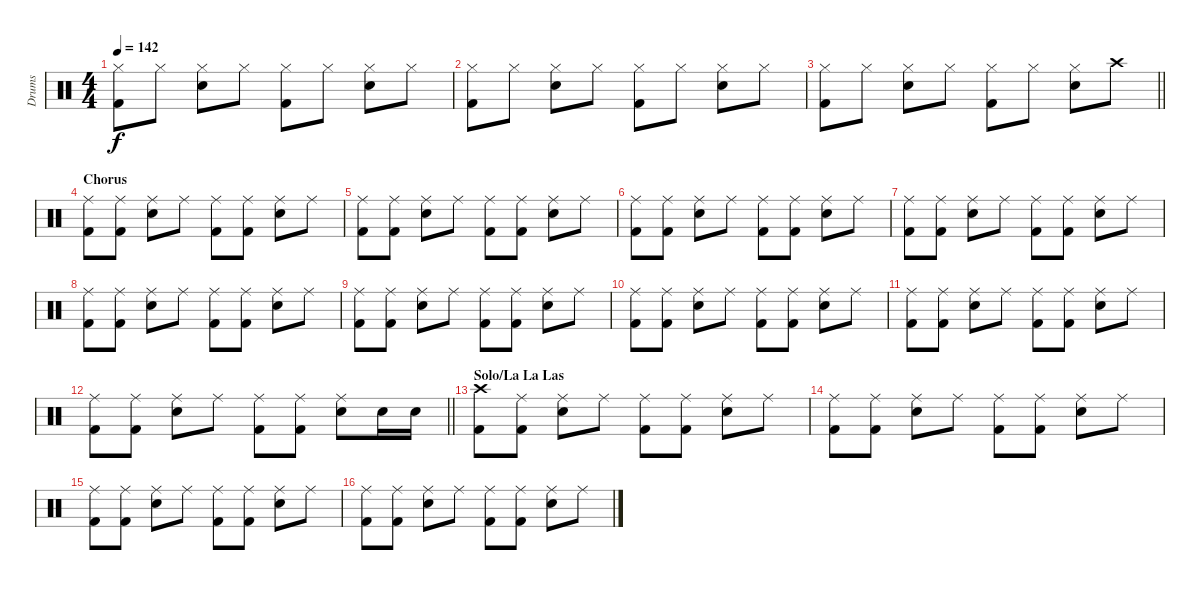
\track ("Drums" "Drums") {instrument percussion}
\staff {score}
\articulation defaults
\ts (4 4)
\tempo 142
\clef neutral
\ks c
("Hi-Hat (closed)" "Kick (hit) 2").8{dy f} "Hi-Hat (closed)".8 ("Hi-Hat (closed)" "Electric Snare (hit)").8 "Hi-Hat (closed)".8 ("Hi-Hat (closed)" "Kick (hit) 2").8 "Hi-Hat (closed)".8 ("Hi-Hat (closed)" "Electric Snare (hit)").8 "Hi-Hat (closed)".8 |
("Hi-Hat (closed)" "Kick (hit) 2").8 "Hi-Hat (closed)".8 ("Hi-Hat (closed)" "Electric Snare (hit)").8 "Hi-Hat (closed)".8 ("Hi-Hat (closed)" "Kick (hit) 2").8 "Hi-Hat (closed)".8 ("Hi-Hat (closed)" "Electric Snare (hit)").8 "Hi-Hat (closed)".8 |
\barLineRight lightlight
("Hi-Hat (closed)" "Kick (hit) 2").8 "Hi-Hat (closed)".8 ("Hi-Hat (closed)" "Electric Snare (hit)").8 "Hi-Hat (closed)".8 ("Hi-Hat (closed)" "Kick (hit) 2").8 "Hi-Hat (closed)".8 ("Hi-Hat (closed)" "Electric Snare (hit)").8 "Crash high (hit)".8 |
\section ("" "Chorus")
("Ride (middle)" "Kick (hit) 2").8 ("Ride (middle)" "Kick (hit) 2").8 ("Ride (middle)" "Electric Snare (hit)").8 "Ride (middle)".8 ("Ride (middle)" "Kick (hit) 2").8 ("Ride (middle)" "Kick (hit) 2").8 ("Ride (middle)" "Electric Snare (hit)").8 "Ride (middle)".8 |
("Ride (middle)" "Kick (hit) 2").8 ("Ride (middle)" "Kick (hit) 2").8 ("Ride (middle)" "Electric Snare (hit)").8 "Ride (middle)".8 ("Ride (middle)" "Kick (hit) 2").8 ("Ride (middle)" "Kick (hit) 2").8 ("Ride (middle)" "Electric Snare (hit)").8 "Ride (middle)".8 |
("Ride (middle)" "Kick (hit) 2").8 ("Ride (middle)" "Kick (hit) 2").8 ("Ride (middle)" "Electric Snare (hit)").8 "Ride (middle)".8 ("Ride (middle)" "Kick (hit) 2").8 ("Ride (middle)" "Kick (hit) 2").8 ("Ride (middle)" "Electric Snare (hit)").8 "Ride (middle)".8 |
("Ride (middle)" "Kick (hit) 2").8 ("Ride (middle)" "Kick (hit) 2").8 ("Ride (middle)" "Electric Snare (hit)").8 "Ride (middle)".8 ("Ride (middle)" "Kick (hit) 2").8 ("Ride (middle)" "Kick (hit) 2").8 ("Ride (middle)" "Electric Snare (hit)").8 "Ride (middle)".8 |
("Ride (middle)" "Kick (hit) 2").8 ("Ride (middle)" "Kick (hit) 2").8 ("Ride (middle)" "Electric Snare (hit)").8 "Ride (middle)".8 ("Ride (middle)" "Kick (hit) 2").8 ("Ride (middle)" "Kick (hit) 2").8 ("Ride (middle)" "Electric Snare (hit)").8 "Ride (middle)".8 |
("Ride (middle)" "Kick (hit) 2").8 ("Ride (middle)" "Kick (hit) 2").8 ("Ride (middle)" "Electric Snare (hit)").8 "Ride (middle)".8 ("Ride (middle)" "Kick (hit) 2").8 ("Ride (middle)" "Kick (hit) 2").8 ("Ride (middle)" "Electric Snare (hit)").8 "Ride (middle)".8 |
("Ride (middle)" "Kick (hit) 2").8 ("Ride (middle)" "Kick (hit) 2").8 ("Ride (middle)" "Electric Snare (hit)").8 "Ride (middle)".8 ("Ride (middle)" "Kick (hit) 2").8 ("Ride (middle)" "Kick (hit) 2").8 ("Ride (middle)" "Electric Snare (hit)").8 "Ride (middle)".8 |
("Ride (middle)" "Kick (hit) 2").8 ("Ride (middle)" "Kick (hit) 2").8 ("Ride (middle)" "Electric Snare (hit)").8 "Ride (middle)".8 ("Ride (middle)" "Kick (hit) 2").8 ("Ride (middle)" "Kick (hit) 2").8 ("Ride (middle)" "Electric Snare (hit)").8 "Ride (middle)".8 |
\barLineRight lightlight
("Ride (middle)" "Kick (hit) 2").8 ("Ride (middle)" "Kick (hit) 2").8 ("Ride (middle)" "Electric Snare (hit)").8 "Ride (middle)".8 ("Ride (middle)" "Kick (hit) 2").8 ("Ride (middle)" "Kick (hit) 2").8 ("Ride (middle)" "Electric Snare (hit)").8 "Electric Snare (hit)".16 "Electric Snare (hit)".16 |
\section ("" "Solo/La La Las")
("Crash high (hit)" "Kick (hit) 2").8 ("Ride (middle)" "Kick (hit) 2").8 ("Ride (middle)" "Electric Snare (hit)").8 "Ride (middle)".8 ("Ride (middle)" "Kick (hit) 2").8 ("Ride (middle)" "Kick (hit) 2").8 ("Ride (middle)" "Electric Snare (hit)").8 "Ride (middle)".8 |
("Ride (middle)" "Kick (hit) 2").8 ("Ride (middle)" "Kick (hit) 2").8 ("Ride (middle)" "Electric Snare (hit)").8 "Ride (middle)".8 ("Ride (middle)" "Kick (hit) 2").8 ("Ride (middle)" "Kick (hit) 2").8 ("Ride (middle)" "Electric Snare (hit)").8 "Ride (middle)".8 |
("Ride (middle)" "Kick (hit) 2").8 ("Ride (middle)" "Kick (hit) 2").8 ("Ride (middle)" "Electric Snare (hit)").8 "Ride (middle)".8 ("Ride (middle)" "Kick (hit) 2").8 ("Ride (middle)" "Kick (hit) 2").8 ("Ride (middle)" "Electric Snare (hit)").8 "Ride (middle)".8 |
("Ride (middle)" "Kick (hit) 2").8 ("Ride (middle)" "Kick (hit) 2").8 ("Ride (middle)" "Electric Snare (hit)").8 "Ride (middle)".8 ("Ride (middle)" "Kick (hit) 2").8 ("Ride (middle)" "Kick (hit) 2").8 ("Ride (middle)" "Electric Snare (hit)").8 "Ride (middle)".8
